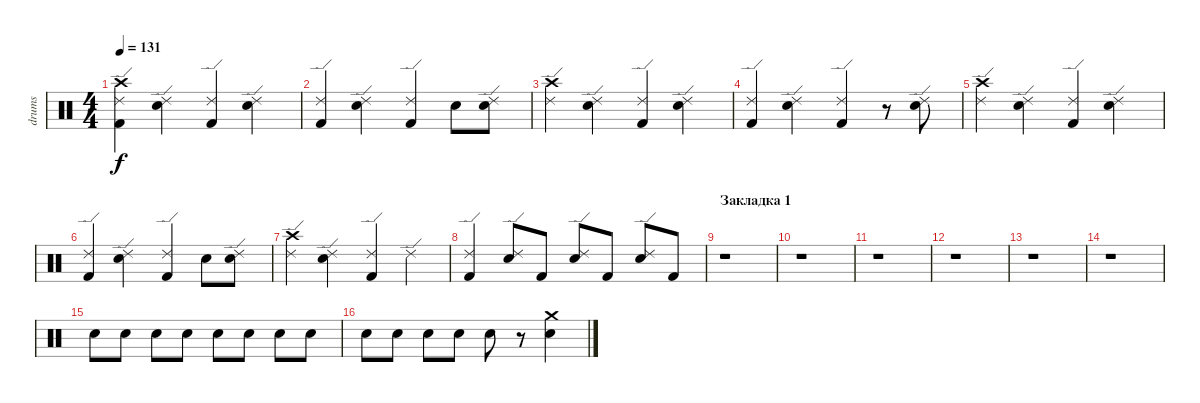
\track ("drums" "drums") {instrument percussion}
\staff {score}
\articulation defaults
\ts (4 4)
\tempo 131
\clef neutral
\ks c
("Crash high (hit)" "Kick (hit) 2" "Ride (edge) 2").4{dy f} ("Electric Snare (hit)" "Ride (edge) 2").4 ("Kick (hit) 2" "Ride (edge) 2").4 ("Electric Snare (hit)" "Ride (edge) 2").4 |
("Kick (hit) 2" "Ride (edge) 2").4 ("Electric Snare (hit)" "Ride (edge) 2").4 ("Kick (hit) 2" "Ride (edge) 2").4 "Electric Snare (hit)".8 ("Electric Snare (hit)" "Ride (edge) 2").8 |
("Crash high (hit)" "Ride (edge) 2").4 ("Electric Snare (hit)" "Ride (edge) 2").4 ("Kick (hit) 2" "Ride (edge) 2").4 ("Electric Snare (hit)" "Ride (edge) 2").4 |
("Kick (hit) 2" "Ride (edge) 2").4 ("Electric Snare (hit)" "Ride (edge) 2").4 ("Kick (hit) 2" "Ride (edge) 2").4 r.8 ("Electric Snare (hit)" "Ride (edge) 2").8 |
("Crash high (hit)" "Ride (edge) 2").4 ("Electric Snare (hit)" "Ride (edge) 2").4 ("Kick (hit) 2" "Ride (edge) 2").4 ("Electric Snare (hit)" "Ride (edge) 2").4 |
("Kick (hit) 2" "Ride (edge) 2").4 ("Electric Snare (hit)" "Ride (edge) 2").4 ("Kick (hit) 2" "Ride (edge) 2").4 "Electric Snare (hit)".8 ("Electric Snare (hit)" "Ride (edge) 2").8 |
("Crash high (hit)" "Ride (edge) 2").4 ("Electric Snare (hit)" "Ride (edge) 2").4 ("Kick (hit) 2" "Ride (edge) 2").4 "Ride (edge) 2".4 |
("Kick (hit) 2" "Ride (edge) 2").4 ("Electric Snare (hit)" "Ride (edge) 2").8 "Kick (hit) 2".8 ("Electric Snare (hit)" "Ride (edge) 2").8 "Kick (hit) 2".8 ("Electric Snare (hit)" "Ride (edge) 2").8 "Kick (hit) 2".8 |
\section ("" "Закладка 1")
r.1 |
r.1 |
r.1 |
r.1 |
r.1 |
r.1 |
"Electric Snare (hit)".8 "Electric Snare (hit)".8 "Electric Snare (hit)".8 "Electric Snare (hit)".8 "Electric Snare (hit)".8 "Electric Snare (hit)".8 "Electric Snare (hit)".8 "Electric Snare (hit)".8 |
"Electric Snare (hit)".8 "Electric Snare (hit)".8 "Electric Snare (hit)".8 "Electric Snare (hit)".8 "Electric Snare (hit)".8 r.8 ("Crash medium (hit)" "Electric Snare (hit)").4
